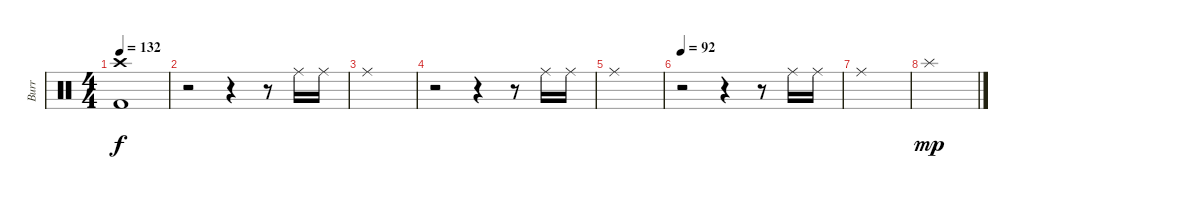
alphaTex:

\track ("Burr" "Burr") {instrument percussion}
\staff {score}
\articulation defaults
\ts (4 4)
\tempo 132
\clef neutral
\ks c
("Crash high (hit)" "Kick (hit) 2").1{dy f} |
r.2 r.4 r.8 "Ride (middle)".16 "Ride (middle)".16 |
"Ride (middle)".1 |
r.2 r.4 r.8 "Ride (middle)".16 "Ride (middle)".16 |
"Ride (middle)".1 |
\tempo 92
r.2 r.4 r.8 "Ride (middle)".16 "Ride (middle)".16 |
"Ride (middle)".1 |
"Splash (hit)".1{dy mp}
